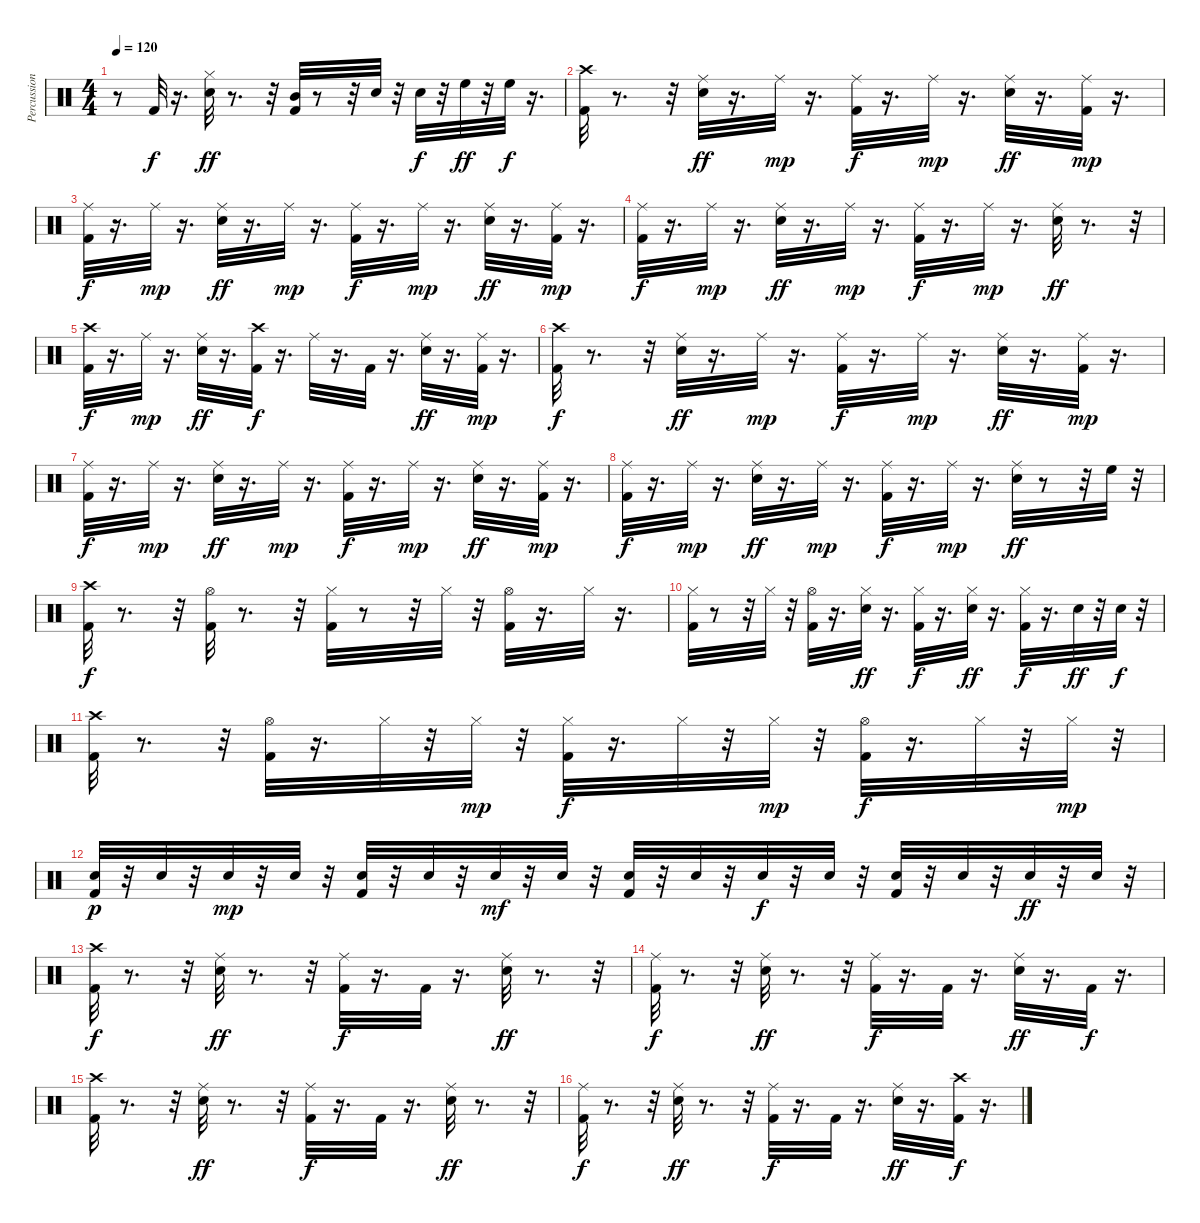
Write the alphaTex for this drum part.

\track ("Percussion" "Percussion") {instrument percussion}
\staff {score}
\articulation defaults
\ts (4 4)
\tempo 120
\clef neutral
\ks c
r.8{dy f} "Kick (hit) 2".32 r.16{d} ("Snare (hit) 2" "Hi-Hat (closed)").32{dy ff} r.8{d} r.32 ("Mid Tom (hit)" "Kick (hit) 2").32 r.8 r.32 "Snare (hit) 2".32 r.32 "Snare (hit) 2".32{dy f} r.32 "High Floor Tom (hit)".32{dy ff} r.32 "High Floor Tom (hit)".32{dy f} r.16{d} |
("Crash high (hit)" "Kick (hit) 2").32 r.8{d} r.32 ("Snare (hit) 2" "Ride (middle)").32{dy ff} r.16{d} "Ride (middle)".32{dy mp} r.16{d} ("Ride (middle)" "Kick (hit) 2").32{dy f} r.16{d} "Ride (middle)".32{dy mp} r.16{d} ("Snare (hit) 2" "Ride (middle)").32{dy ff} r.16{d} ("Ride (middle)" "Kick (hit) 2").32{dy mp} r.16{d} |
("Ride (middle)" "Kick (hit) 2").32{dy f} r.16{d} "Ride (middle)".32{dy mp} r.16{d} ("Snare (hit) 2" "Ride (middle)").32{dy ff} r.16{d} "Ride (middle)".32{dy mp} r.16{d} ("Ride (middle)" "Kick (hit) 2").32{dy f} r.16{d} "Ride (middle)".32{dy mp} r.16{d} ("Snare (hit) 2" "Ride (middle)").32{dy ff} r.16{d} ("Ride (middle)" "Kick (hit) 2").32{dy mp} r.16{d} |
("Ride (middle)" "Kick (hit) 2").32{dy f} r.16{d} "Ride (middle)".32{dy mp} r.16{d} ("Snare (hit) 2" "Ride (middle)").32{dy ff} r.16{d} "Ride (middle)".32{dy mp} r.16{d} ("Ride (middle)" "Kick (hit) 2").32{dy f} r.16{d} "Ride (middle)".32{dy mp} r.16{d} ("Ride (middle)" "Snare (hit) 2").32{dy ff} r.8{d} r.32 |
("Crash high (hit)" "Kick (hit) 2").32{dy f} r.16{d} "Ride (middle)".32{dy mp} r.16{d} ("Snare (hit) 2" "Ride (middle)").32{dy ff} r.16{d} ("Crash high (hit)" "Kick (hit) 2").32{dy f} r.16{d} "Ride (middle)".32 r.16{d} "Kick (hit) 2".32 r.16{d} ("Snare (hit) 2" "Ride (middle)").32{dy ff} r.16{d} ("Ride (middle)" "Kick (hit) 2").32{dy mp} r.16{d} |
("Crash high (hit)" "Kick (hit) 2").32{dy f} r.8{d} r.32 ("Snare (hit) 2" "Ride (middle)").32{dy ff} r.16{d} "Ride (middle)".32{dy mp} r.16{d} ("Ride (middle)" "Kick (hit) 2").32{dy f} r.16{d} "Ride (middle)".32{dy mp} r.16{d} ("Snare (hit) 2" "Ride (middle)").32{dy ff} r.16{d} ("Ride (middle)" "Kick (hit) 2").32{dy mp} r.16{d} |
("Ride (middle)" "Kick (hit) 2").32{dy f} r.16{d} "Ride (middle)".32{dy mp} r.16{d} ("Snare (hit) 2" "Ride (middle)").32{dy ff} r.16{d} "Ride (middle)".32{dy mp} r.16{d} ("Ride (middle)" "Kick (hit) 2").32{dy f} r.16{d} "Ride (middle)".32{dy mp} r.16{d} ("Snare (hit) 2" "Ride (middle)").32{dy ff} r.16{d} ("Ride (middle)" "Kick (hit) 2").32{dy mp} r.16{d} |
("Ride (middle)" "Kick (hit) 2").32{dy f} r.16{d} "Ride (middle)".32{dy mp} r.16{d} ("Snare (hit) 2" "Ride (middle)").32{dy ff} r.16{d} "Ride (middle)".32{dy mp} r.16{d} ("Ride (middle)" "Kick (hit) 2").32{dy f} r.16{d} "Ride (middle)".32{dy mp} r.16{d} ("Snare (hit) 2" "Ride (middle)").32{dy ff} r.8 r.32 "High Floor Tom (hit)".32 r.32 |
("Crash high (hit)" "Kick (hit) 2").32{dy f} r.8{d} r.32 ("Hi-Hat (open)" "Kick (hit) 2").32 r.8{d} r.32 ("Hi-Hat (closed)" "Kick (hit) 2").32 r.8 r.32 "Hi-Hat (closed)".32 r.32 ("Hi-Hat (open)" "Kick (hit) 2").32 r.16{d} "Hi-Hat (closed)".32 r.16{d} |
("Hi-Hat (closed)" "Kick (hit) 2").32 r.8 r.32 "Hi-Hat (closed)".32 r.32 ("Hi-Hat (open)" "Kick (hit) 2").32 r.16{d} ("Snare (hit) 2" "Hi-Hat (closed)").32{dy ff} r.16{d} ("Hi-Hat (closed)" "Kick (hit) 2").32{dy f} r.16{d} ("Hi-Hat (closed)" "Snare (hit) 2").32{dy ff} r.16{d} ("Hi-Hat (closed)" "Kick (hit) 2").32{dy f} r.16{d} "Snare (hit) 2".32{dy ff} r.32 "Snare (hit) 2".32{dy f} r.32 |
("Crash high (hit)" "Kick (hit) 2").32 r.8{d} r.32 ("Hi-Hat (open)" "Kick (hit) 2").32 r.16{d} "Hi-Hat (closed)".32 r.32 "Hi-Hat (closed)".32{dy mp} r.32 ("Hi-Hat (closed)" "Kick (hit) 2").32{dy f} r.16{d} "Hi-Hat (closed)".32 r.32 "Hi-Hat (closed)".32{dy mp} r.32 ("Hi-Hat (open)" "Kick (hit) 2").32{dy f} r.16{d} "Hi-Hat (closed)".32 r.32 "Hi-Hat (closed)".32{dy mp} r.32 |
("Snare (hit) 2" "Kick (hit) 2").32{dy p} r.32 "Snare (hit) 2".32 r.32 "Snare (hit) 2".32{dy mp} r.32 "Snare (hit) 2".32 r.32 ("Snare (hit) 2" "Kick (hit) 2").32 r.32 "Snare (hit) 2".32 r.32 "Snare (hit) 2".32{dy mf} r.32 "Snare (hit) 2".32 r.32 ("Snare (hit) 2" "Kick (hit) 2").32 r.32 "Snare (hit) 2".32 r.32 "Snare (hit) 2".32{dy f} r.32 "Snare (hit) 2".32 r.32 ("Snare (hit) 2" "Kick (hit) 2").32 r.32 "Snare (hit) 2".32 r.32 "Snare (hit) 2".32{dy ff} r.32 "Snare (hit) 2".32 r.32 |
("Crash high (hit)" "Kick (hit) 2").32{dy f} r.8{d} r.32 ("Snare (hit) 2" "Ride (middle)").32{dy ff} r.8{d} r.32 ("Ride (middle)" "Kick (hit) 2").32{dy f} r.16{d} "Kick (hit) 2".32 r.16{d} ("Snare (hit) 2" "Ride (middle)").32{dy ff} r.8{d} r.32 |
("Ride (middle)" "Kick (hit) 2").32{dy f} r.8{d} r.32 ("Snare (hit) 2" "Ride (middle)").32{dy ff} r.8{d} r.32 ("Ride (middle)" "Kick (hit) 2").32{dy f} r.16{d} "Kick (hit) 2".32 r.16{d} ("Snare (hit) 2" "Ride (middle)").32{dy ff} r.16{d} "Kick (hit) 2".32{dy f} r.16{d} |
("Crash high (hit)" "Kick (hit) 2").32 r.8{d} r.32 ("Snare (hit) 2" "Ride (middle)").32{dy ff} r.8{d} r.32 ("Ride (middle)" "Kick (hit) 2").32{dy f} r.16{d} "Kick (hit) 2".32 r.16{d} ("Snare (hit) 2" "Ride (middle)").32{dy ff} r.8{d} r.32 |
("Ride (middle)" "Kick (hit) 2").32{dy f} r.8{d} r.32 ("Snare (hit) 2" "Ride (middle)").32{dy ff} r.8{d} r.32 ("Ride (middle)" "Kick (hit) 2").32{dy f} r.16{d} "Kick (hit) 2".32 r.16{d} ("Ride (middle)" "Snare (hit) 2").32{dy ff} r.16{d} ("Crash high (hit)" "Kick (hit) 2").32{dy f} r.16{d}
